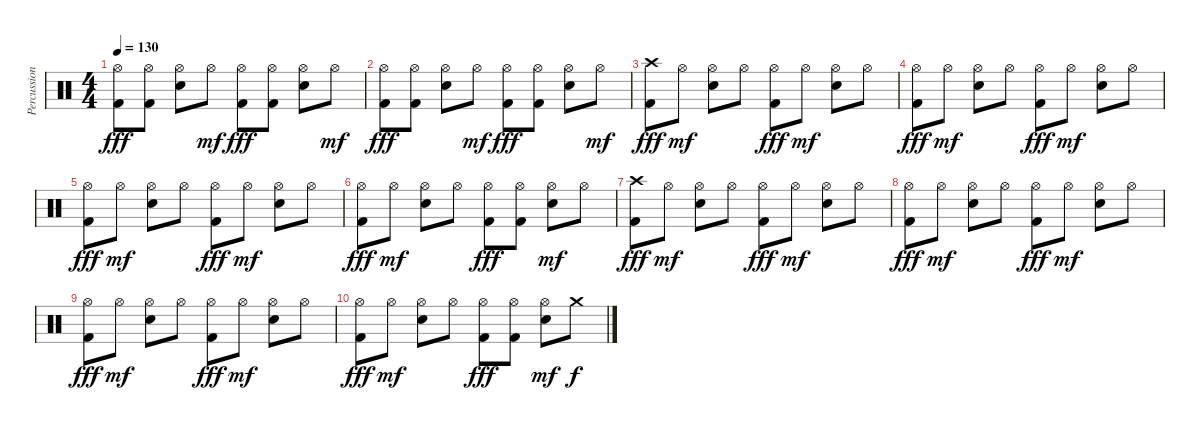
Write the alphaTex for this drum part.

\track ("Percussion" "Percussion") {instrument percussion}
\staff {score}
\articulation defaults
\ts (4 4)
\tempo 130
\clef neutral
\ks c
("Hi-Hat (open)" "Kick (hit) 2").8{dy fff} ("Hi-Hat (open)" "Kick (hit) 2").8 ("Hi-Hat (open)" "Electric Snare (hit)").8 "Hi-Hat (open)".8{dy mf} ("Hi-Hat (open)" "Kick (hit) 2").8{dy fff} ("Hi-Hat (open)" "Kick (hit) 2").8 ("Hi-Hat (open)" "Electric Snare (hit)").8 "Hi-Hat (open)".8{dy mf} |
("Hi-Hat (open)" "Kick (hit) 2").8{dy fff} ("Hi-Hat (open)" "Kick (hit) 2").8 ("Hi-Hat (open)" "Electric Snare (hit)").8 "Hi-Hat (open)".8{dy mf} ("Hi-Hat (open)" "Kick (hit) 2").8{dy fff} ("Hi-Hat (open)" "Kick (hit) 2").8 ("Hi-Hat (open)" "Electric Snare (hit)").8 "Hi-Hat (open)".8{dy mf} |
("Crash high (hit)" "Kick (hit) 2").8{dy fff volume 12} "Hi-Hat (open)".8{dy mf} ("Hi-Hat (open)" "Electric Snare (hit)").8 "Hi-Hat (open)".8 ("Hi-Hat (open)" "Kick (hit) 2").8{dy fff} "Hi-Hat (open)".8{dy mf} ("Hi-Hat (open)" "Electric Snare (hit)").8 "Hi-Hat (open)".8 |
("Hi-Hat (open)" "Kick (hit) 2").8{dy fff} "Hi-Hat (open)".8{dy mf} ("Hi-Hat (open)" "Electric Snare (hit)").8 "Hi-Hat (open)".8 ("Hi-Hat (open)" "Kick (hit) 2").8{dy fff} "Hi-Hat (open)".8{dy mf} ("Hi-Hat (open)" "Electric Snare (hit)").8 "Hi-Hat (open)".8 |
("Hi-Hat (open)" "Kick (hit) 2").8{dy fff volume 8} "Hi-Hat (open)".8{dy mf} ("Hi-Hat (open)" "Electric Snare (hit)").8 "Hi-Hat (open)".8 ("Hi-Hat (open)" "Kick (hit) 2").8{dy fff} "Hi-Hat (open)".8{dy mf} ("Hi-Hat (open)" "Electric Snare (hit)").8 "Hi-Hat (open)".8 |
("Hi-Hat (open)" "Kick (hit) 2").8{dy fff} "Hi-Hat (open)".8{dy mf} ("Hi-Hat (open)" "Electric Snare (hit)").8 "Hi-Hat (open)".8 ("Hi-Hat (open)" "Kick (hit) 2").8{dy fff} ("Hi-Hat (open)" "Kick (hit) 2").8 ("Hi-Hat (open)" "Electric Snare (hit)").8{dy mf} "Hi-Hat (open)".8 |
("Crash high (hit)" "Kick (hit) 2").8{dy fff volume 4} "Hi-Hat (open)".8{dy mf} ("Hi-Hat (open)" "Electric Snare (hit)").8 "Hi-Hat (open)".8 ("Hi-Hat (open)" "Kick (hit) 2").8{dy fff} "Hi-Hat (open)".8{dy mf} ("Hi-Hat (open)" "Electric Snare (hit)").8 "Hi-Hat (open)".8 |
("Hi-Hat (open)" "Kick (hit) 2").8{dy fff} "Hi-Hat (open)".8{dy mf} ("Hi-Hat (open)" "Electric Snare (hit)").8 "Hi-Hat (open)".8 ("Hi-Hat (open)" "Kick (hit) 2").8{dy fff} "Hi-Hat (open)".8{dy mf} ("Hi-Hat (open)" "Electric Snare (hit)").8 "Hi-Hat (open)".8 |
("Hi-Hat (open)" "Kick (hit) 2").8{dy fff volume 0} "Hi-Hat (open)".8{dy mf} ("Hi-Hat (open)" "Electric Snare (hit)").8 "Hi-Hat (open)".8 ("Hi-Hat (open)" "Kick (hit) 2").8{dy fff} "Hi-Hat (open)".8{dy mf} ("Hi-Hat (open)" "Electric Snare (hit)").8 "Hi-Hat (open)".8 |
("Hi-Hat (open)" "Kick (hit) 2").8{dy fff} "Hi-Hat (open)".8{dy mf} ("Hi-Hat (open)" "Electric Snare (hit)").8 "Hi-Hat (open)".8 ("Hi-Hat (open)" "Kick (hit) 2").8{dy fff} ("Hi-Hat (open)" "Kick (hit) 2").8 ("Hi-Hat (open)" "Electric Snare (hit)").8{dy mf} "Crash medium (hit)".8{dy f}
